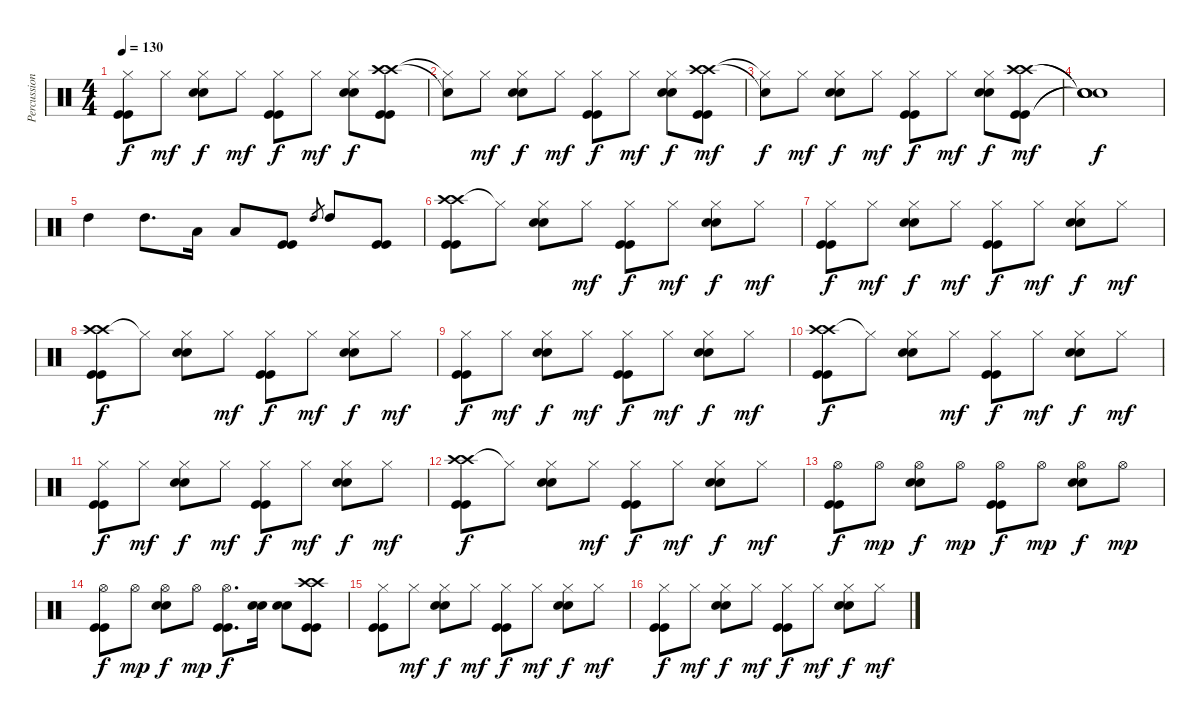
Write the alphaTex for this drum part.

\track ("Percussions" "Percussion") {instrument percussion}
\staff {score}
\articulation defaults
\ts (4 4)
\tempo 130
\clef neutral
\ks c
("Hi-Hat (closed)" "Kick (hit)" "Kick (hit)").8{dy f} "Hi-Hat (closed)".8{dy mf} ("Hi-Hat (closed)" "Snare (hit) 2" "Snare (hit) 2").8{dy f} "Hi-Hat (closed)".8{dy mf} ("Hi-Hat (closed)" "Kick (hit)" "Kick (hit)").8{dy f} "Hi-Hat (closed)".8{dy mf} ("Hi-Hat (closed)" "Snare (hit) 2" "Snare (hit) 2").8{dy f} ("Crash high (hit)" "Crash high (hit)" "Kick (hit)" "Kick (hit)").8 |
("Hi-Hat (closed)"{t} "Snare (hit)"{t}).8 "Hi-Hat (closed)".8{dy mf} ("Hi-Hat (closed)" "Snare (hit) 2" "Snare (hit) 2").8{dy f} "Hi-Hat (closed)".8{dy mf} ("Hi-Hat (closed)" "Kick (hit)" "Kick (hit)").8{dy f} "Hi-Hat (closed)".8{dy mf} ("Hi-Hat (closed)" "Snare (hit) 2" "Snare (hit) 2").8{dy f} ("Crash high (hit)" "Crash high (hit)" "Kick (hit)" "Kick (hit)").8{dy mf} |
("Hi-Hat (closed)"{t} "Snare (hit)"{t}).8{dy f} "Hi-Hat (closed)".8{dy mf} ("Hi-Hat (closed)" "Snare (hit) 2" "Snare (hit) 2").8{dy f} "Hi-Hat (closed)".8{dy mf} ("Hi-Hat (closed)" "Kick (hit)" "Kick (hit)").8{dy f} "Hi-Hat (closed)".8{dy mf} ("Hi-Hat (closed)" "Snare (hit) 2" "Snare (hit) 2").8{dy f} ("Crash high (hit)" "Crash high (hit)" "Kick (hit)" "Kick (hit)").8{dy mf} |
("Snare (hit)"{t} "Snare (hit)"{t} "Snare (hit)"{t} "Snare (hit)"{t}).1{dy f} |
"High Tom (hit)".4 "High Tom (hit)".8{d} "Low Tom (hit)".16 "Low Tom (hit)".8 ("Kick (hit)" "Kick (hit)").8 "High Tom (hit)".8{gr} "High Tom (hit)".8 ("Kick (hit)" "Kick (hit)").8 |
("Crash high (hit)" "Crash high (hit)" "Kick (hit)" "Kick (hit)").8 "Hi-Hat (closed)"{t}.8 ("Hi-Hat (closed)" "Snare (hit) 2" "Snare (hit) 2").8 "Hi-Hat (closed)".8{dy mf} ("Hi-Hat (closed)" "Kick (hit)" "Kick (hit)").8{dy f} "Hi-Hat (closed)".8{dy mf} ("Hi-Hat (closed)" "Snare (hit) 2" "Snare (hit) 2").8{dy f} "Hi-Hat (closed)".8{dy mf} |
("Hi-Hat (closed)" "Kick (hit)" "Kick (hit)").8{dy f} "Hi-Hat (closed)".8{dy mf} ("Hi-Hat (closed)" "Snare (hit) 2" "Snare (hit) 2").8{dy f} "Hi-Hat (closed)".8{dy mf} ("Hi-Hat (closed)" "Kick (hit)" "Kick (hit)").8{dy f} "Hi-Hat (closed)".8{dy mf} ("Hi-Hat (closed)" "Snare (hit) 2" "Snare (hit) 2").8{dy f} "Hi-Hat (closed)".8{dy mf} |
("Crash high (hit)" "Crash high (hit)" "Kick (hit)" "Kick (hit)").8{dy f} "Hi-Hat (closed)"{t}.8 ("Hi-Hat (closed)" "Snare (hit) 2" "Snare (hit) 2").8 "Hi-Hat (closed)".8{dy mf} ("Hi-Hat (closed)" "Kick (hit)" "Kick (hit)").8{dy f} "Hi-Hat (closed)".8{dy mf} ("Hi-Hat (closed)" "Snare (hit) 2" "Snare (hit) 2").8{dy f} "Hi-Hat (closed)".8{dy mf} |
("Hi-Hat (closed)" "Kick (hit)" "Kick (hit)").8{dy f} "Hi-Hat (closed)".8{dy mf} ("Hi-Hat (closed)" "Snare (hit) 2" "Snare (hit) 2").8{dy f} "Hi-Hat (closed)".8{dy mf} ("Hi-Hat (closed)" "Kick (hit)" "Kick (hit)").8{dy f} "Hi-Hat (closed)".8{dy mf} ("Hi-Hat (closed)" "Snare (hit) 2" "Snare (hit) 2").8{dy f} "Hi-Hat (closed)".8{dy mf} |
("Crash high (hit)" "Crash high (hit)" "Kick (hit)" "Kick (hit)").8{dy f} "Hi-Hat (closed)"{t}.8 ("Hi-Hat (closed)" "Snare (hit) 2" "Snare (hit) 2").8 "Hi-Hat (closed)".8{dy mf} ("Hi-Hat (closed)" "Kick (hit)" "Kick (hit)").8{dy f} "Hi-Hat (closed)".8{dy mf} ("Hi-Hat (closed)" "Snare (hit) 2" "Snare (hit) 2").8{dy f} "Hi-Hat (closed)".8{dy mf} |
("Hi-Hat (closed)" "Kick (hit)" "Kick (hit)").8{dy f} "Hi-Hat (closed)".8{dy mf} ("Hi-Hat (closed)" "Snare (hit) 2" "Snare (hit) 2").8{dy f} "Hi-Hat (closed)".8{dy mf} ("Hi-Hat (closed)" "Kick (hit)" "Kick (hit)").8{dy f} "Hi-Hat (closed)".8{dy mf} ("Hi-Hat (closed)" "Snare (hit) 2" "Snare (hit) 2").8{dy f} "Hi-Hat (closed)".8{dy mf} |
("Crash high (hit)" "Crash high (hit)" "Kick (hit)" "Kick (hit)").8{dy f} "Hi-Hat (closed)"{t}.8 ("Hi-Hat (closed)" "Snare (hit) 2" "Snare (hit) 2").8 "Hi-Hat (closed)".8{dy mf} ("Hi-Hat (closed)" "Kick (hit)" "Kick (hit)").8{dy f} "Hi-Hat (closed)".8{dy mf} ("Hi-Hat (closed)" "Snare (hit) 2" "Snare (hit) 2").8{dy f} "Hi-Hat (closed)".8{dy mf} |
("Hi-Hat (open)" "Kick (hit)" "Kick (hit)").8{dy f} "Hi-Hat (open)".8{dy mp} ("Hi-Hat (open)" "Snare (hit) 2" "Snare (hit) 2").8{dy f} "Hi-Hat (open)".8{dy mp} ("Hi-Hat (open)" "Kick (hit)" "Kick (hit)").8{dy f} "Hi-Hat (open)".8{dy mp} ("Hi-Hat (open)" "Snare (hit) 2" "Snare (hit) 2").8{dy f} "Hi-Hat (open)".8{dy mp} |
("Hi-Hat (open)" "Kick (hit)" "Kick (hit)").8{dy f} "Hi-Hat (open)".8{dy mp} ("Hi-Hat (open)" "Snare (hit) 2" "Snare (hit) 2").8{dy f} "Hi-Hat (open)".8{dy mp} ("Hi-Hat (open)" "Kick (hit)" "Kick (hit)").8{d dy f} ("Snare (hit) 2" "Snare (hit) 2").16 ("Snare (hit) 2" "Snare (hit) 2").8 ("Crash high (hit)" "Crash high (hit)" "Kick (hit)" "Kick (hit)").8 |
("Hi-Hat (closed)" "Kick (hit)" "Kick (hit)").8 "Hi-Hat (closed)".8{dy mf} ("Hi-Hat (closed)" "Snare (hit) 2" "Snare (hit) 2").8{dy f} "Hi-Hat (closed)".8{dy mf} ("Hi-Hat (closed)" "Kick (hit)" "Kick (hit)").8{dy f} "Hi-Hat (closed)".8{dy mf} ("Hi-Hat (closed)" "Snare (hit) 2" "Snare (hit) 2").8{dy f} "Hi-Hat (closed)".8{dy mf} |
("Hi-Hat (closed)" "Kick (hit)" "Kick (hit)").8{dy f} "Hi-Hat (closed)".8{dy mf} ("Hi-Hat (closed)" "Snare (hit) 2" "Snare (hit) 2").8{dy f} "Hi-Hat (closed)".8{dy mf} ("Hi-Hat (closed)" "Kick (hit)" "Kick (hit)").8{dy f} "Hi-Hat (closed)".8{dy mf} ("Hi-Hat (closed)" "Snare (hit) 2" "Snare (hit) 2").8{dy f} "Hi-Hat (closed)".8{dy mf}
